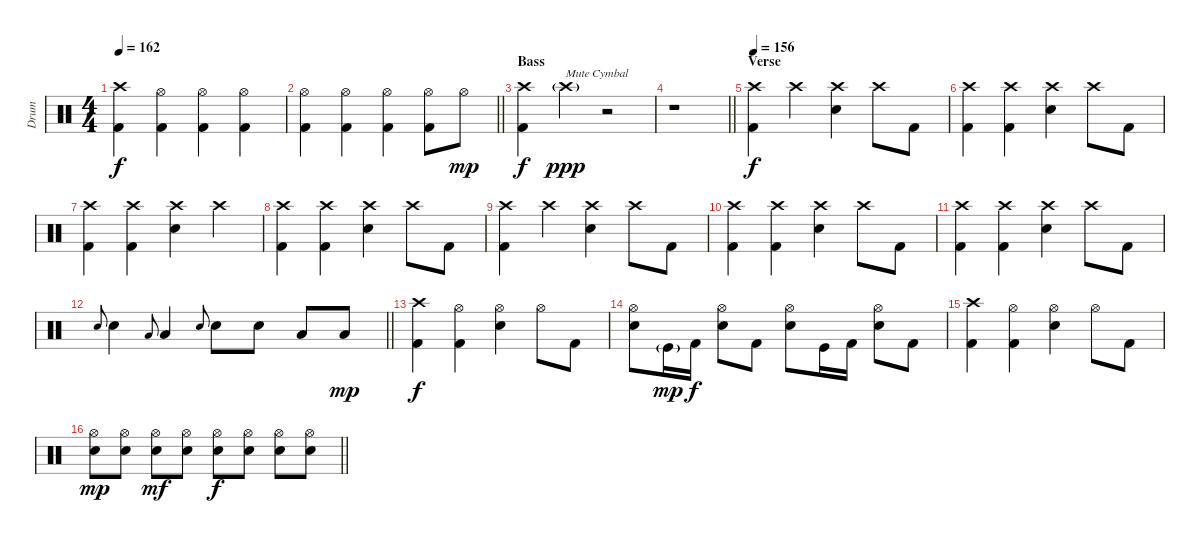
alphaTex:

\track ("Drum" "Drum") {instrument percussion}
\staff {score}
\articulation defaults
\ts (4 4)
\tempo 162
\clef neutral
\ks c
("Crash high (hit)" "Kick (hit) 2").4{dy f} ("Hi-Hat (open)" "Kick (hit) 2").4 ("Hi-Hat (open)" "Kick (hit) 2").4 ("Hi-Hat (open)" "Kick (hit) 2").4 |
\barLineRight lightlight
("Hi-Hat (open)" "Kick (hit) 2").4 ("Hi-Hat (open)" "Kick (hit) 2").4 ("Hi-Hat (open)" "Kick (hit) 2").4 ("Hi-Hat (open)" "Kick (hit) 2").8 "Hi-Hat (open)".8{dy mp} |
\section ("" "Bass")
("Crash high (hit)" "Kick (hit) 2").4{dy f} "Crash high (hit)"{g}.4{txt "Mute Cymbal" dy ppp} r.2 |
\barLineRight lightlight
r.1 |
\section ("" "Verse")
\tempo 156
("Crash high (hit)" "Kick (hit) 2").4{dy f} "Crash high (hit)".4 ("Crash high (hit)" "Snare (hit) 2").4 "Crash high (hit)".8 "Kick (hit) 2".8 |
("Crash high (hit)" "Kick (hit) 2").4 ("Crash high (hit)" "Kick (hit) 2").4 ("Crash high (hit)" "Snare (hit) 2").4 "Crash high (hit)".8 "Kick (hit) 2".8 |
("Crash high (hit)" "Kick (hit) 2").4 ("Crash high (hit)" "Kick (hit) 2").4 ("Crash high (hit)" "Snare (hit) 2").4 "Crash high (hit)".4 |
("Crash high (hit)" "Kick (hit) 2").4 ("Crash high (hit)" "Kick (hit) 2").4 ("Crash high (hit)" "Snare (hit) 2").4 "Crash high (hit)".8 "Kick (hit) 2".8 |
("Crash high (hit)" "Kick (hit) 2").4 "Crash high (hit)".4 ("Crash high (hit)" "Snare (hit) 2").4 "Crash high (hit)".8 "Kick (hit) 2".8 |
("Crash high (hit)" "Kick (hit) 2").4 ("Crash high (hit)" "Kick (hit) 2").4 ("Crash high (hit)" "Snare (hit) 2").4 "Crash high (hit)".8 "Kick (hit) 2".8 |
("Crash high (hit)" "Kick (hit) 2").4 ("Crash high (hit)" "Kick (hit) 2").4 ("Crash high (hit)" "Snare (hit) 2").4 "Crash high (hit)".8 "Kick (hit) 2".8 |
\barLineRight lightlight "Snare (hit) 2".8{gr onbeat} "Snare (hit) 2".4 "Low Tom (hit)".8{gr onbeat} "Low Tom (hit)".4 "Snare (hit) 2".8{gr onbeat} "Snare (hit) 2".8 "Snare (hit) 2".8 "Low Tom (hit)".8 "Low Tom (hit)".8{dy mp}
|
\section ("" "")
("Crash high (hit)" "Kick (hit) 2").4{dy f} ("Hi-Hat (open)" "Kick (hit) 2").4 ("Hi-Hat (open)" "Electric Snare (hit)").4 "Hi-Hat (open)".8 "Kick (hit) 2".8 |
("Hi-Hat (open)" "Electric Snare (hit)").8 "Kick (hit)"{g}.16{dy mp} "Kick (hit) 2".16{dy f} ("Hi-Hat (open)" "Electric Snare (hit)").8 "Kick (hit) 2".8 ("Hi-Hat (open)" "Electric Snare (hit)").8 "Kick (hit)".16 "Kick (hit) 2".16 ("Hi-Hat (open)" "Electric Snare (hit)").8 "Kick (hit) 2".8 |
("Crash high (hit)" "Kick (hit) 2").4 ("Hi-Hat (open)" "Kick (hit) 2").4 ("Hi-Hat (open)" "Electric Snare (hit)").4 "Hi-Hat (open)".8 "Kick (hit) 2".8 |
\barLineRight lightlight
("Hi-Hat (open)" "Electric Snare (hit)").8{dy mp} ("Hi-Hat (open)" "Electric Snare (hit)").8 ("Hi-Hat (open)" "Electric Snare (hit)").8{dy mf} ("Hi-Hat (open)" "Electric Snare (hit)").8 ("Hi-Hat (open)" "Electric Snare (hit)").8{dy f} ("Hi-Hat (open)" "Electric Snare (hit)").8 ("Hi-Hat (open)" "Electric Snare (hit)").8 ("Hi-Hat (open)" "Electric Snare (hit)").8
